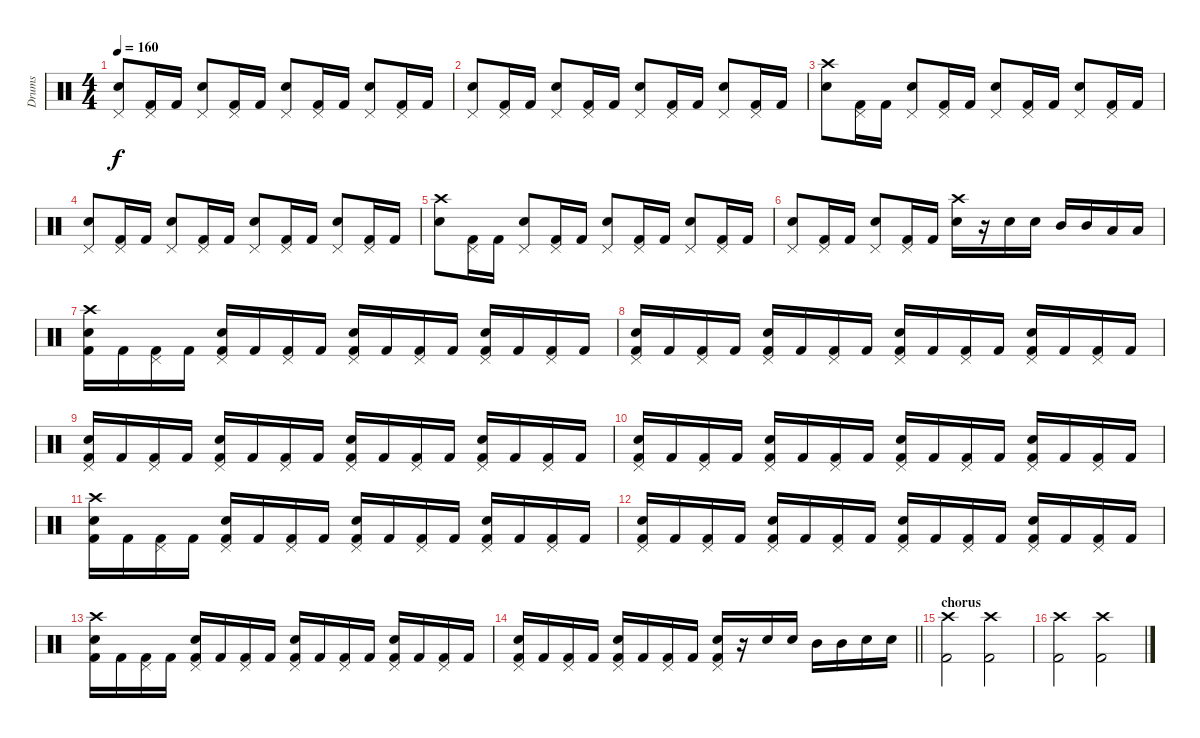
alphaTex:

\track ("Drums" "Drums") {instrument percussion}
\staff {score}
\articulation defaults
\ts (4 4)
\tempo 160
\clef neutral
\ks c
("Pedal Hi-Hat (hit)" "Snare (hit) 2").8{dy f} ("Pedal Hi-Hat (hit)" "Kick (hit) 2").16 "Kick (hit) 2".16 ("Pedal Hi-Hat (hit)" "Snare (hit) 2").8 ("Pedal Hi-Hat (hit)" "Kick (hit) 2").16 "Kick (hit) 2".16 ("Pedal Hi-Hat (hit)" "Snare (hit) 2").8 ("Pedal Hi-Hat (hit)" "Kick (hit) 2").16 "Kick (hit) 2".16 ("Pedal Hi-Hat (hit)" "Snare (hit) 2").8 ("Pedal Hi-Hat (hit)" "Kick (hit) 2").16 "Kick (hit) 2".16 |
("Pedal Hi-Hat (hit)" "Snare (hit) 2").8 ("Pedal Hi-Hat (hit)" "Kick (hit) 2").16 "Kick (hit) 2".16 ("Pedal Hi-Hat (hit)" "Snare (hit) 2").8 ("Pedal Hi-Hat (hit)" "Kick (hit) 2").16 "Kick (hit) 2".16 ("Pedal Hi-Hat (hit)" "Snare (hit) 2").8 ("Pedal Hi-Hat (hit)" "Kick (hit) 2").16 "Kick (hit) 2".16 ("Pedal Hi-Hat (hit)" "Snare (hit) 2").8 ("Pedal Hi-Hat (hit)" "Kick (hit) 2").16 "Kick (hit) 2".16 |
("Crash high (hit)" "Snare (hit) 2").8 ("Pedal Hi-Hat (hit)" "Kick (hit) 2").16 "Kick (hit) 2".16 ("Pedal Hi-Hat (hit)" "Snare (hit) 2").8 ("Pedal Hi-Hat (hit)" "Kick (hit) 2").16 "Kick (hit) 2".16 ("Pedal Hi-Hat (hit)" "Snare (hit) 2").8 ("Pedal Hi-Hat (hit)" "Kick (hit) 2").16 "Kick (hit) 2".16 ("Pedal Hi-Hat (hit)" "Snare (hit) 2").8 ("Pedal Hi-Hat (hit)" "Kick (hit) 2").16 "Kick (hit) 2".16 |
("Pedal Hi-Hat (hit)" "Snare (hit) 2").8 ("Pedal Hi-Hat (hit)" "Kick (hit) 2").16 "Kick (hit) 2".16 ("Pedal Hi-Hat (hit)" "Snare (hit) 2").8 ("Pedal Hi-Hat (hit)" "Kick (hit) 2").16 "Kick (hit) 2".16 ("Pedal Hi-Hat (hit)" "Snare (hit) 2").8 ("Pedal Hi-Hat (hit)" "Kick (hit) 2").16 "Kick (hit) 2".16 ("Pedal Hi-Hat (hit)" "Snare (hit) 2").8 ("Pedal Hi-Hat (hit)" "Kick (hit) 2").16 "Kick (hit) 2".16 |
("Crash high (hit)" "Snare (hit) 2").8 ("Pedal Hi-Hat (hit)" "Kick (hit) 2").16 "Kick (hit) 2".16 ("Pedal Hi-Hat (hit)" "Snare (hit) 2").8 ("Pedal Hi-Hat (hit)" "Kick (hit) 2").16 "Kick (hit) 2".16 ("Pedal Hi-Hat (hit)" "Snare (hit) 2").8 ("Pedal Hi-Hat (hit)" "Kick (hit) 2").16 "Kick (hit) 2".16 ("Pedal Hi-Hat (hit)" "Snare (hit) 2").8 ("Pedal Hi-Hat (hit)" "Kick (hit) 2").16 "Kick (hit) 2".16 |
("Pedal Hi-Hat (hit)" "Snare (hit) 2").8 ("Pedal Hi-Hat (hit)" "Kick (hit) 2").16 "Kick (hit) 2".16 ("Pedal Hi-Hat (hit)" "Snare (hit) 2").8 ("Pedal Hi-Hat (hit)" "Kick (hit) 2").16 "Kick (hit) 2".16 ("Crash high (hit)" "Snare (hit) 2").16 r.16 "Snare (hit) 2".16 "Snare (hit) 2".16 "Mid Tom (hit)".16 "Mid Tom (hit)".16 "Low Tom (hit)".16 "Low Tom (hit)".16 |
("Crash high (hit)" "Snare (hit) 2" "Kick (hit) 2").16 "Kick (hit) 2".16 ("Pedal Hi-Hat (hit)" "Kick (hit) 2").16 "Kick (hit) 2".16 ("Pedal Hi-Hat (hit)" "Snare (hit) 2" "Kick (hit) 2").16 "Kick (hit) 2".16 ("Pedal Hi-Hat (hit)" "Kick (hit) 2").16 "Kick (hit) 2".16 ("Pedal Hi-Hat (hit)" "Snare (hit) 2" "Kick (hit) 2").16 "Kick (hit) 2".16 ("Pedal Hi-Hat (hit)" "Kick (hit) 2").16 "Kick (hit) 2".16 ("Pedal Hi-Hat (hit)" "Snare (hit) 2" "Kick (hit) 2").16 "Kick (hit) 2".16 ("Pedal Hi-Hat (hit)" "Kick (hit) 2").16 "Kick (hit) 2".16 |
("Pedal Hi-Hat (hit)" "Snare (hit) 2" "Kick (hit) 2").16 "Kick (hit) 2".16 ("Pedal Hi-Hat (hit)" "Kick (hit) 2").16 "Kick (hit) 2".16 ("Pedal Hi-Hat (hit)" "Snare (hit) 2" "Kick (hit) 2").16 "Kick (hit) 2".16 ("Pedal Hi-Hat (hit)" "Kick (hit) 2").16 "Kick (hit) 2".16 ("Pedal Hi-Hat (hit)" "Snare (hit) 2" "Kick (hit) 2").16 "Kick (hit) 2".16 ("Pedal Hi-Hat (hit)" "Kick (hit) 2").16 "Kick (hit) 2".16 ("Pedal Hi-Hat (hit)" "Snare (hit) 2" "Kick (hit) 2").16 "Kick (hit) 2".16 ("Pedal Hi-Hat (hit)" "Kick (hit) 2").16 "Kick (hit) 2".16 |
("Pedal Hi-Hat (hit)" "Snare (hit) 2" "Kick (hit) 2").16 "Kick (hit) 2".16 ("Pedal Hi-Hat (hit)" "Kick (hit) 2").16 "Kick (hit) 2".16 ("Pedal Hi-Hat (hit)" "Snare (hit) 2" "Kick (hit) 2").16 "Kick (hit) 2".16 ("Pedal Hi-Hat (hit)" "Kick (hit) 2").16 "Kick (hit) 2".16 ("Pedal Hi-Hat (hit)" "Snare (hit) 2" "Kick (hit) 2").16 "Kick (hit) 2".16 ("Pedal Hi-Hat (hit)" "Kick (hit) 2").16 "Kick (hit) 2".16 ("Pedal Hi-Hat (hit)" "Snare (hit) 2" "Kick (hit) 2").16 "Kick (hit) 2".16 ("Pedal Hi-Hat (hit)" "Kick (hit) 2").16 "Kick (hit) 2".16 |
("Pedal Hi-Hat (hit)" "Snare (hit) 2" "Kick (hit) 2").16 "Kick (hit) 2".16 ("Pedal Hi-Hat (hit)" "Kick (hit) 2").16 "Kick (hit) 2".16 ("Pedal Hi-Hat (hit)" "Snare (hit) 2" "Kick (hit) 2").16 "Kick (hit) 2".16 ("Pedal Hi-Hat (hit)" "Kick (hit) 2").16 "Kick (hit) 2".16 ("Pedal Hi-Hat (hit)" "Snare (hit) 2" "Kick (hit) 2").16 "Kick (hit) 2".16 ("Pedal Hi-Hat (hit)" "Kick (hit) 2").16 "Kick (hit) 2".16 ("Pedal Hi-Hat (hit)" "Snare (hit) 2" "Kick (hit) 2").16 "Kick (hit) 2".16 ("Pedal Hi-Hat (hit)" "Kick (hit) 2").16 "Kick (hit) 2".16 |
("Crash high (hit)" "Snare (hit) 2" "Kick (hit) 2").16 "Kick (hit) 2".16 ("Pedal Hi-Hat (hit)" "Kick (hit) 2").16 "Kick (hit) 2".16 ("Pedal Hi-Hat (hit)" "Snare (hit) 2" "Kick (hit) 2").16 "Kick (hit) 2".16 ("Pedal Hi-Hat (hit)" "Kick (hit) 2").16 "Kick (hit) 2".16 ("Pedal Hi-Hat (hit)" "Snare (hit) 2" "Kick (hit) 2").16 "Kick (hit) 2".16 ("Pedal Hi-Hat (hit)" "Kick (hit) 2").16 "Kick (hit) 2".16 ("Pedal Hi-Hat (hit)" "Snare (hit) 2" "Kick (hit) 2").16 "Kick (hit) 2".16 ("Pedal Hi-Hat (hit)" "Kick (hit) 2").16 "Kick (hit) 2".16 |
("Pedal Hi-Hat (hit)" "Snare (hit) 2" "Kick (hit) 2").16 "Kick (hit) 2".16 ("Pedal Hi-Hat (hit)" "Kick (hit) 2").16 "Kick (hit) 2".16 ("Pedal Hi-Hat (hit)" "Snare (hit) 2" "Kick (hit) 2").16 "Kick (hit) 2".16 ("Pedal Hi-Hat (hit)" "Kick (hit) 2").16 "Kick (hit) 2".16 ("Pedal Hi-Hat (hit)" "Snare (hit) 2" "Kick (hit) 2").16 "Kick (hit) 2".16 ("Pedal Hi-Hat (hit)" "Kick (hit) 2").16 "Kick (hit) 2".16 ("Pedal Hi-Hat (hit)" "Snare (hit) 2" "Kick (hit) 2").16 "Kick (hit) 2".16 ("Pedal Hi-Hat (hit)" "Kick (hit) 2").16 "Kick (hit) 2".16 |
("Crash high (hit)" "Snare (hit) 2" "Kick (hit) 2").16 "Kick (hit) 2".16 ("Pedal Hi-Hat (hit)" "Kick (hit) 2").16 "Kick (hit) 2".16 ("Pedal Hi-Hat (hit)" "Snare (hit) 2" "Kick (hit) 2").16 "Kick (hit) 2".16 ("Pedal Hi-Hat (hit)" "Kick (hit) 2").16 "Kick (hit) 2".16 ("Pedal Hi-Hat (hit)" "Snare (hit) 2" "Kick (hit) 2").16 "Kick (hit) 2".16 ("Pedal Hi-Hat (hit)" "Kick (hit) 2").16 "Kick (hit) 2".16 ("Pedal Hi-Hat (hit)" "Snare (hit) 2" "Kick (hit) 2").16 "Kick (hit) 2".16 ("Pedal Hi-Hat (hit)" "Kick (hit) 2").16 "Kick (hit) 2".16 |
\barLineRight lightlight
("Pedal Hi-Hat (hit)" "Snare (hit) 2" "Kick (hit) 2").16 "Kick (hit) 2".16 ("Pedal Hi-Hat (hit)" "Kick (hit) 2").16 "Kick (hit) 2".16 ("Pedal Hi-Hat (hit)" "Snare (hit) 2" "Kick (hit) 2").16 "Kick (hit) 2".16 ("Pedal Hi-Hat (hit)" "Kick (hit) 2").16 "Kick (hit) 2".16 ("Pedal Hi-Hat (hit)" "Snare (hit) 2" "Kick (hit) 2").16 r.16 "Snare (hit) 2".16 "Snare (hit) 2".16 "Mid Tom (hit)".16 "Mid Tom (hit)".16 "Snare (hit) 2".16 "Snare (hit) 2".16 |
\section ("" "chorus")
("Crash high (hit)" "Kick (hit) 2").2 ("Crash high (hit)" "Kick (hit) 2").2 |
("Crash high (hit)" "Kick (hit) 2").2 ("Crash high (hit)" "Kick (hit) 2").2
